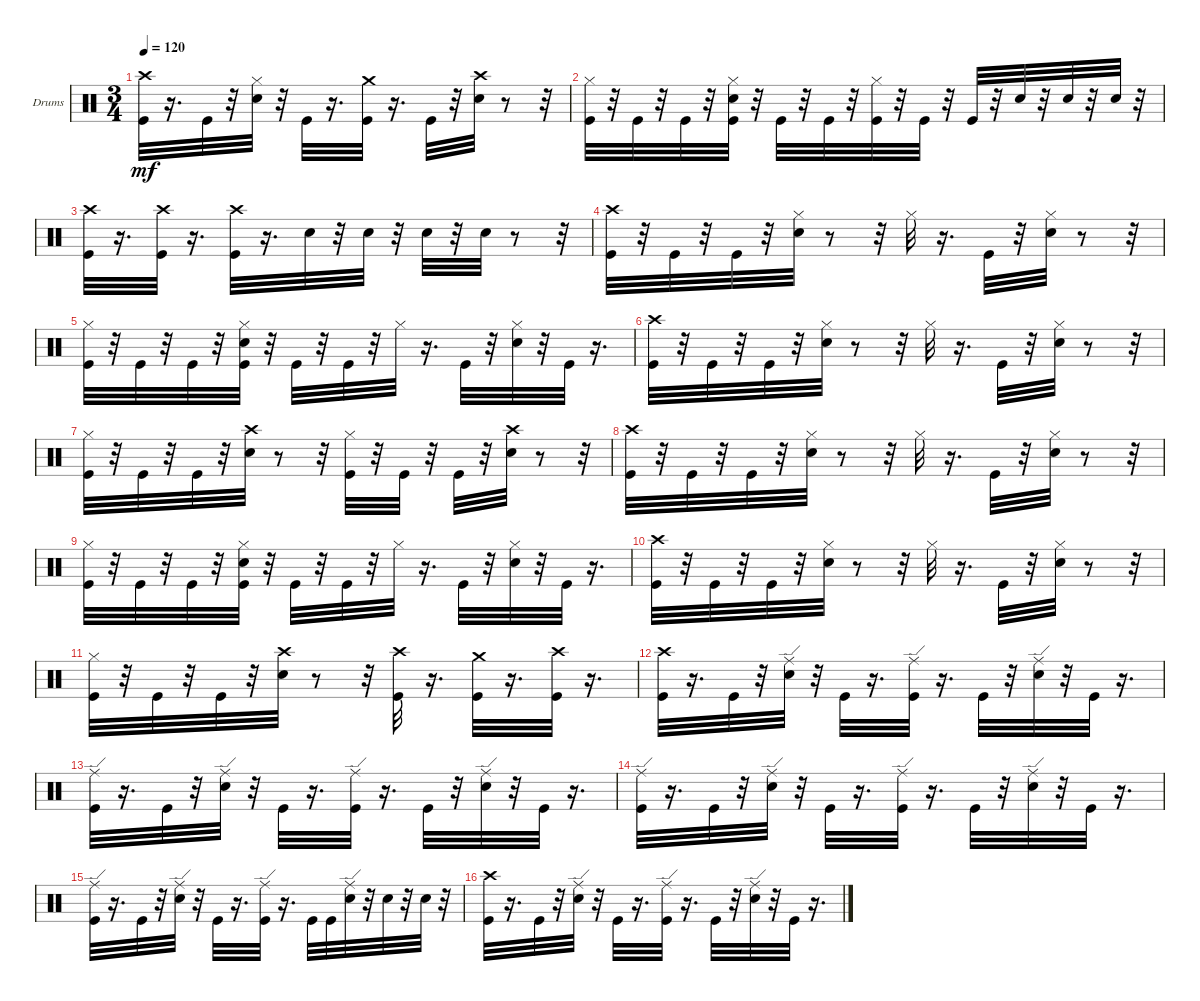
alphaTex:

\bracketExtendMode groupsimilarinstruments
\firstSystemTrackNameOrientation horizontal
\otherSystemsTrackNameOrientation horizontal
\track ("" "Drums") {instrument percussion}
\staff {score}
\articulation defaults
\ts (3 4)
\tempo 120
\clef neutral
\ks c
("Crash high (hit)" "Kick (hit)").32{dy mf} r.16{d} "Kick (hit)".32 r.32 ("Snare (hit) 2" "Hi-Hat (closed)").32 r.32 "Kick (hit)".32 r.16{d} ("Crash medium (hit)" "Kick (hit)").32 r.16{d} "Kick (hit)".32 r.32 ("Crash high (hit)" "Snare (hit) 2").32 r.8 r.32 |
("Hi-Hat (closed)" "Kick (hit)").32 r.32 "Kick (hit)".32 r.32 "Kick (hit)".32 r.32 ("Kick (hit)" "Hi-Hat (closed)" "Snare (hit) 2").32 r.32 "Kick (hit)".32 r.32 "Kick (hit)".32 r.32 ("Hi-Hat (closed)" "Kick (hit)").32 r.32 "Kick (hit)".32 r.32 "Kick (hit)".32 r.32 "Snare (hit) 2".32 r.32 "Snare (hit) 2".32 r.32 "Snare (hit) 2".32 r.32 |
("Crash high (hit)" "Kick (hit)").32 r.16{d} ("Crash high (hit)" "Kick (hit)").32 r.16{d} ("Crash high (hit)" "Kick (hit)").32 r.16{d} "Snare (hit) 2".32 r.32 "Snare (hit) 2".32 r.32 "Snare (hit) 2".32 r.32 "Snare (hit) 2".32 r.8 r.32 |
("Crash high (hit)" "Kick (hit)").32 r.32 "Kick (hit)".32 r.32 "Kick (hit)".32 r.32 ("Hi-Hat (closed)" "Snare (hit) 2").32 r.8 r.32 "Hi-Hat (closed)".32 r.16{d} "Kick (hit)".32 r.32 ("Hi-Hat (closed)" "Snare (hit) 2").32 r.8 r.32 |
("Kick (hit)" "Hi-Hat (closed)").32 r.32 "Kick (hit)".32 r.32 "Kick (hit)".32 r.32 ("Kick (hit)" "Snare (hit) 2" "Hi-Hat (closed)").32 r.32 "Kick (hit)".32 r.32 "Kick (hit)".32 r.32 "Hi-Hat (closed)".32 r.16{d} "Kick (hit)".32 r.32 ("Snare (hit) 2" "Hi-Hat (closed)").32 r.32 "Kick (hit)".32 r.16{d} |
("Crash high (hit)" "Kick (hit)").32 r.32 "Kick (hit)".32 r.32 "Kick (hit)".32 r.32 ("Hi-Hat (closed)" "Snare (hit) 2").32 r.8 r.32 "Hi-Hat (closed)".32 r.16{d} "Kick (hit)".32 r.32 ("Hi-Hat (closed)" "Snare (hit) 2").32 r.8 r.32 |
("Kick (hit)" "Hi-Hat (closed)").32 r.32 "Kick (hit)".32 r.32 "Kick (hit)".32 r.32 ("Crash high (hit)" "Snare (hit) 2").32 r.8 r.32 ("Kick (hit)" "Hi-Hat (closed)").32 r.32 "Kick (hit)".32 r.32 "Kick (hit)".32 r.32 ("Crash high (hit)" "Snare (hit) 2").32 r.8 r.32 |
("Crash high (hit)" "Kick (hit)").32 r.32 "Kick (hit)".32 r.32 "Kick (hit)".32 r.32 ("Hi-Hat (closed)" "Snare (hit) 2").32 r.8 r.32 "Hi-Hat (closed)".32 r.16{d} "Kick (hit)".32 r.32 ("Hi-Hat (closed)" "Snare (hit) 2").32 r.8 r.32 |
("Kick (hit)" "Hi-Hat (closed)").32 r.32 "Kick (hit)".32 r.32 "Kick (hit)".32 r.32 ("Kick (hit)" "Snare (hit) 2" "Hi-Hat (closed)").32 r.32 "Kick (hit)".32 r.32 "Kick (hit)".32 r.32 "Hi-Hat (closed)".32 r.16{d} "Kick (hit)".32 r.32 ("Snare (hit) 2" "Hi-Hat (closed)").32 r.32 "Kick (hit)".32 r.16{d} |
("Crash high (hit)" "Kick (hit)").32 r.32 "Kick (hit)".32 r.32 "Kick (hit)".32 r.32 ("Hi-Hat (closed)" "Snare (hit) 2").32 r.8 r.32 "Hi-Hat (closed)".32 r.16{d} "Kick (hit)".32 r.32 ("Hi-Hat (closed)" "Snare (hit) 2").32 r.8 r.32 |
("Kick (hit)" "Hi-Hat (closed)").32 r.32 "Kick (hit)".32 r.32 "Kick (hit)".32 r.32 ("Crash high (hit)" "Snare (hit) 2").32 r.8 r.32 ("Crash high (hit)" "Kick (hit)").32 r.16{d} ("Crash medium (hit)" "Kick (hit)").32 r.16{d} ("Crash high (hit)" "Kick (hit)").32 r.16{d} |
("Crash high (hit)" "Kick (hit)").32 r.16{d} "Kick (hit)".32 r.32 ("Snare (hit) 2" "Ride (edge)").32 r.32 "Kick (hit)".32 r.16{d} ("Kick (hit)" "Ride (edge)").32 r.16{d} "Kick (hit)".32 r.32 ("Snare (hit) 2" "Ride (edge)").32 r.32 "Kick (hit)".32 r.16{d} |
("Ride (edge)" "Kick (hit)").32 r.16{d} "Kick (hit)".32 r.32 ("Snare (hit) 2" "Ride (edge)").32 r.32 "Kick (hit)".32 r.16{d} ("Kick (hit)" "Ride (edge)").32 r.16{d} "Kick (hit)".32 r.32 ("Snare (hit) 2" "Ride (edge)").32 r.32 "Kick (hit)".32 r.16{d} |
("Ride (edge)" "Kick (hit)").32 r.16{d} "Kick (hit)".32 r.32 ("Snare (hit) 2" "Ride (edge)").32 r.32 "Kick (hit)".32 r.16{d} ("Kick (hit)" "Ride (edge)").32 r.16{d} "Kick (hit)".32 r.32 ("Snare (hit) 2" "Ride (edge)").32 r.32 "Kick (hit)".32 r.16{d} |
("Ride (edge)" "Kick (hit)").32 r.16{d} "Kick (hit)".32 r.32 ("Snare (hit) 2" "Ride (edge)").32 r.32 "Kick (hit)".32 r.16{d} ("Kick (hit)" "Ride (edge)").32 r.16{d} "Kick (hit)".32 "Kick (hit)".32 ("Snare (hit) 2" "Ride (edge)").32 r.32 "Snare (hit) 2".32 r.32 "Snare (hit) 2".32 r.32 |
("Crash high (hit)" "Kick (hit)").32 r.16{d} "Kick (hit)".32 r.32 ("Snare (hit) 2" "Ride (edge)").32 r.32 "Kick (hit)".32 r.16{d} ("Kick (hit)" "Ride (edge)").32 r.16{d} "Kick (hit)".32 r.32 ("Snare (hit) 2" "Ride (edge)").32 r.32 "Kick (hit)".32 r.16{d}
